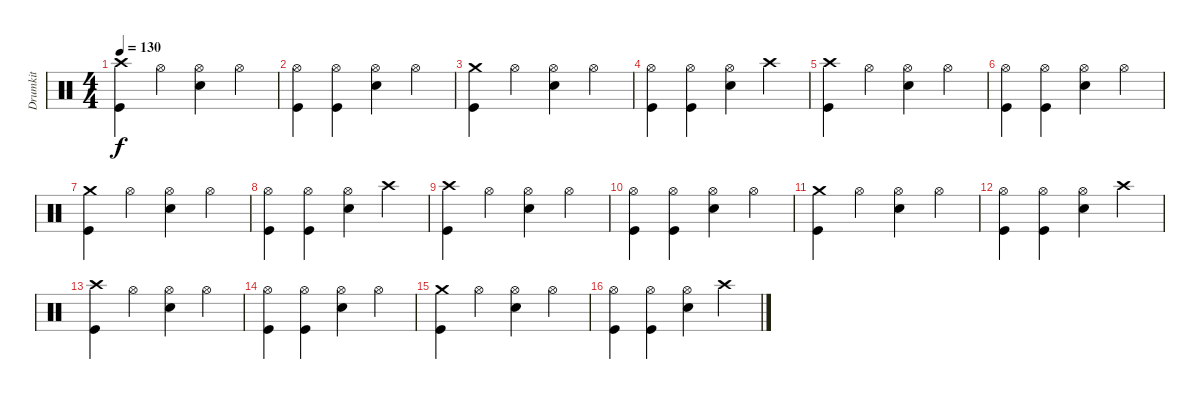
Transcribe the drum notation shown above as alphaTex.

\track ("Drumkit" "Drumkit") {instrument percussion}
\staff {score}
\articulation defaults
\ts (4 4)
\tempo 130
\clef neutral
\ks c
("Crash high (hit)" "Kick (hit)").4{dy f} "Hi-Hat (open)".4 ("Hi-Hat (open)" "Snare (hit) 2").4 "Hi-Hat (open)".4 |
("Hi-Hat (open)" "Kick (hit)").4 ("Hi-Hat (open)" "Kick (hit)").4 ("Hi-Hat (open)" "Snare (hit) 2").4 "Hi-Hat (open)".4 |
("Crash medium (hit)" "Kick (hit)").4 "Hi-Hat (open)".4 ("Hi-Hat (open)" "Snare (hit) 2").4 "Hi-Hat (open)".4 |
("Hi-Hat (open)" "Kick (hit)").4 ("Hi-Hat (open)" "Kick (hit)").4 ("Hi-Hat (open)" "Snare (hit) 2").4 "Crash high (hit)".4 |
("Crash high (hit)" "Kick (hit)").4 "Hi-Hat (open)".4 ("Hi-Hat (open)" "Snare (hit) 2").4 "Hi-Hat (open)".4 |
("Hi-Hat (open)" "Kick (hit)").4 ("Hi-Hat (open)" "Kick (hit)").4 ("Hi-Hat (open)" "Snare (hit) 2").4 "Hi-Hat (open)".4 |
("Crash medium (hit)" "Kick (hit)").4 "Hi-Hat (open)".4 ("Hi-Hat (open)" "Snare (hit) 2").4 "Hi-Hat (open)".4 |
("Hi-Hat (open)" "Kick (hit)").4 ("Hi-Hat (open)" "Kick (hit)").4 ("Hi-Hat (open)" "Snare (hit) 2").4 "Crash high (hit)".4 |
("Crash high (hit)" "Kick (hit)").4 "Hi-Hat (open)".4 ("Hi-Hat (open)" "Snare (hit) 2").4 "Hi-Hat (open)".4 |
("Hi-Hat (open)" "Kick (hit)").4 ("Hi-Hat (open)" "Kick (hit)").4 ("Hi-Hat (open)" "Snare (hit) 2").4 "Hi-Hat (open)".4 |
("Crash medium (hit)" "Kick (hit)").4 "Hi-Hat (open)".4 ("Hi-Hat (open)" "Snare (hit) 2").4 "Hi-Hat (open)".4 |
("Hi-Hat (open)" "Kick (hit)").4 ("Hi-Hat (open)" "Kick (hit)").4 ("Hi-Hat (open)" "Snare (hit) 2").4 "Crash high (hit)".4 |
("Crash high (hit)" "Kick (hit)").4 "Hi-Hat (open)".4 ("Hi-Hat (open)" "Snare (hit) 2").4 "Hi-Hat (open)".4 |
("Hi-Hat (open)" "Kick (hit)").4 ("Hi-Hat (open)" "Kick (hit)").4 ("Hi-Hat (open)" "Snare (hit) 2").4 "Hi-Hat (open)".4 |
("Crash medium (hit)" "Kick (hit)").4 "Hi-Hat (open)".4 ("Hi-Hat (open)" "Snare (hit) 2").4 "Hi-Hat (open)".4 |
("Hi-Hat (open)" "Kick (hit)").4 ("Hi-Hat (open)" "Kick (hit)").4 ("Hi-Hat (open)" "Snare (hit) 2").4 "Crash high (hit)".4
